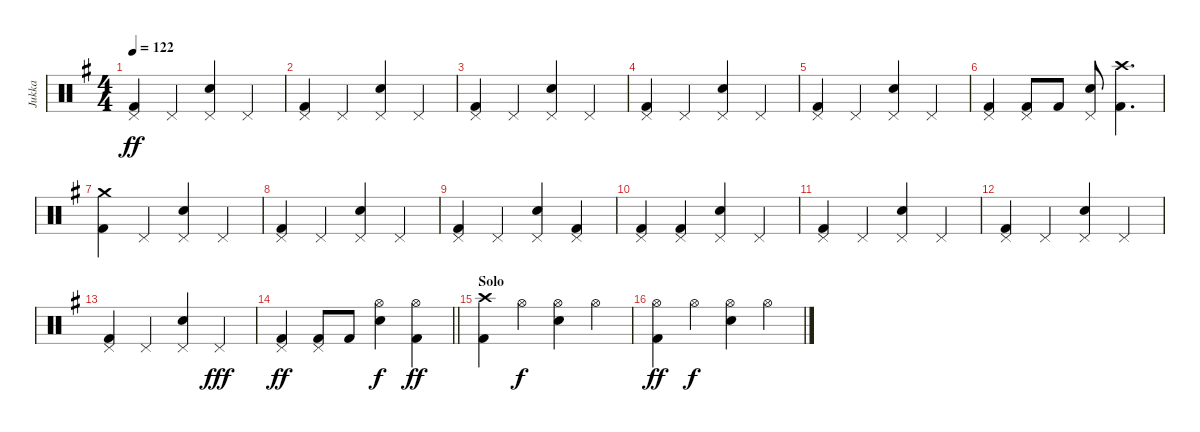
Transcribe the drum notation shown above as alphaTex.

\track ("Jukka" "Jukka") {instrument percussion}
\staff {score}
\articulation defaults
\ts (4 4)
\tempo 122
\clef neutral
\ks g
("Pedal Hi-Hat (hit)" "Kick (hit) 2").4{dy ff} "Pedal Hi-Hat (hit)".4 ("Pedal Hi-Hat (hit)" "Electric Snare (hit)").4 "Pedal Hi-Hat (hit)".4 |
("Pedal Hi-Hat (hit)" "Kick (hit) 2").4 "Pedal Hi-Hat (hit)".4 ("Pedal Hi-Hat (hit)" "Electric Snare (hit)").4 "Pedal Hi-Hat (hit)".4 |
("Pedal Hi-Hat (hit)" "Kick (hit) 2").4 "Pedal Hi-Hat (hit)".4 ("Pedal Hi-Hat (hit)" "Electric Snare (hit)").4 "Pedal Hi-Hat (hit)".4 |
("Pedal Hi-Hat (hit)" "Kick (hit) 2").4 "Pedal Hi-Hat (hit)".4 ("Pedal Hi-Hat (hit)" "Electric Snare (hit)").4 "Pedal Hi-Hat (hit)".4 |
("Pedal Hi-Hat (hit)" "Kick (hit) 2").4 "Pedal Hi-Hat (hit)".4 ("Pedal Hi-Hat (hit)" "Electric Snare (hit)").4 "Pedal Hi-Hat (hit)".4 |
("Pedal Hi-Hat (hit)" "Kick (hit) 2").4 ("Pedal Hi-Hat (hit)" "Kick (hit) 2").8 "Kick (hit) 2".8 ("Pedal Hi-Hat (hit)" "Electric Snare (hit)").8 ("Crash high (hit)" "Kick (hit) 2").4{d} |
("Crash medium (hit)" "Kick (hit) 2").4 "Pedal Hi-Hat (hit)".4 ("Pedal Hi-Hat (hit)" "Electric Snare (hit)").4 "Pedal Hi-Hat (hit)".4 |
("Pedal Hi-Hat (hit)" "Kick (hit) 2").4 "Pedal Hi-Hat (hit)".4 ("Pedal Hi-Hat (hit)" "Electric Snare (hit)").4 "Pedal Hi-Hat (hit)".4 |
("Pedal Hi-Hat (hit)" "Kick (hit) 2").4 "Pedal Hi-Hat (hit)".4 ("Pedal Hi-Hat (hit)" "Electric Snare (hit)").4 ("Pedal Hi-Hat (hit)" "Kick (hit) 2").4 |
("Pedal Hi-Hat (hit)" "Kick (hit) 2").4 ("Pedal Hi-Hat (hit)" "Kick (hit) 2").4 ("Pedal Hi-Hat (hit)" "Electric Snare (hit)").4 "Pedal Hi-Hat (hit)".4 |
("Pedal Hi-Hat (hit)" "Kick (hit) 2").4 "Pedal Hi-Hat (hit)".4 ("Pedal Hi-Hat (hit)" "Electric Snare (hit)").4 "Pedal Hi-Hat (hit)".4 |
("Pedal Hi-Hat (hit)" "Kick (hit) 2").4 "Pedal Hi-Hat (hit)".4 ("Pedal Hi-Hat (hit)" "Electric Snare (hit)").4 "Pedal Hi-Hat (hit)".4 |
("Pedal Hi-Hat (hit)" "Kick (hit) 2").4 "Pedal Hi-Hat (hit)".4 ("Pedal Hi-Hat (hit)" "Electric Snare (hit)").4 "Pedal Hi-Hat (hit)".4{dy fff} |
\barLineRight lightlight
("Pedal Hi-Hat (hit)" "Kick (hit) 2").4{dy ff} ("Pedal Hi-Hat (hit)" "Kick (hit) 2").8 "Kick (hit) 2".8 ("Hi-Hat (open)" "Electric Snare (hit)").4{dy f} ("Hi-Hat (open)" "Kick (hit) 2").4{dy ff} |
\section ("" "Solo")
("Crash high (hit)" "Kick (hit) 2").4 "Hi-Hat (open)".4{dy f} ("Hi-Hat (open)" "Electric Snare (hit)").4 "Hi-Hat (open)".4 |
("Hi-Hat (open)" "Kick (hit) 2").4{dy ff} "Hi-Hat (open)".4{dy f} ("Hi-Hat (open)" "Electric Snare (hit)").4 "Hi-Hat (open)".4
